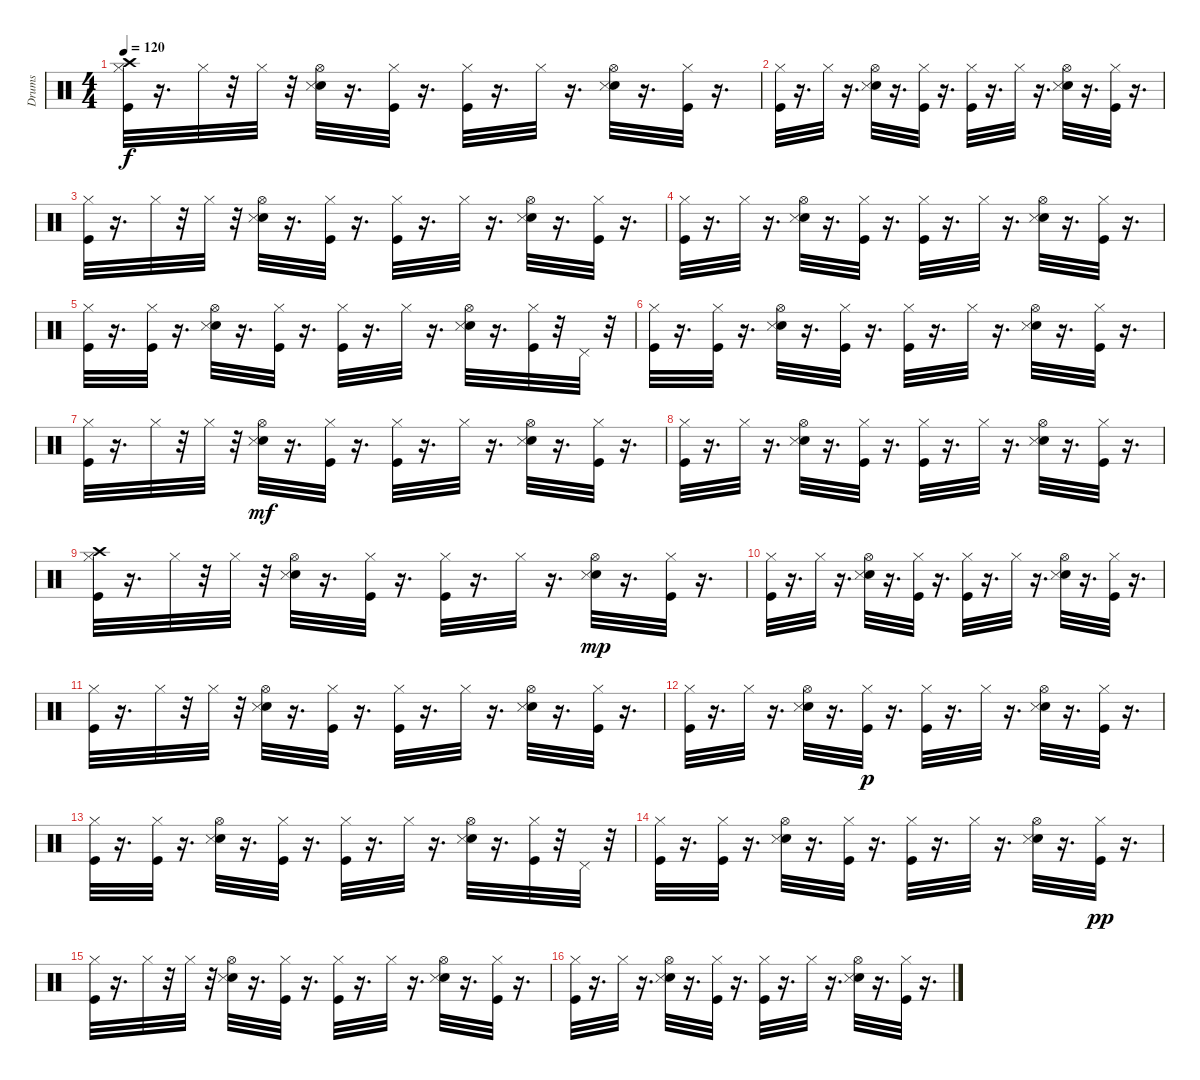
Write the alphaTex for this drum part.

\track ("Drums" "Drums") {instrument percussion}
\staff {score}
\articulation defaults
\ts (4 4)
\tempo 120
\clef neutral
\ks c
("Crash high (hit)" "Hi-Hat (closed)" "Kick (hit)").32{dy f} r.16{d} "Hi-Hat (closed)".32 r.32 "Hi-Hat (closed)".32 r.32 ("Snare (hit) 2" "Hi-Hat (open)" "Snare (side stick) 3").32 r.16{d} ("Hi-Hat (closed)" "Kick (hit)").32 r.16{d} ("Hi-Hat (closed)" "Kick (hit)").32 r.16{d} "Hi-Hat (closed)".32 r.16{d} ("Snare (hit) 2" "Hi-Hat (open)" "Snare (side stick) 3").32 r.16{d} ("Kick (hit)" "Hi-Hat (closed)").32 r.16{d} |
("Hi-Hat (closed)" "Kick (hit)").32 r.16{d} "Hi-Hat (closed)".32 r.16{d} ("Snare (hit) 2" "Hi-Hat (open)" "Snare (side stick) 3").32 r.16{d} ("Hi-Hat (closed)" "Kick (hit)").32 r.16{d} ("Hi-Hat (closed)" "Kick (hit)").32 r.16{d} "Hi-Hat (closed)".32 r.16{d} ("Snare (hit) 2" "Hi-Hat (open)" "Snare (side stick) 3").32 r.16{d} ("Kick (hit)" "Hi-Hat (closed)").32 r.16{d} |
("Hi-Hat (closed)" "Kick (hit)").32 r.16{d} "Hi-Hat (closed)".32 r.32 "Hi-Hat (closed)".32 r.32 ("Snare (hit) 2" "Hi-Hat (open)" "Snare (side stick) 3").32 r.16{d} ("Hi-Hat (closed)" "Kick (hit)").32 r.16{d} ("Hi-Hat (closed)" "Kick (hit)").32 r.16{d} "Hi-Hat (closed)".32 r.16{d} ("Snare (hit) 2" "Hi-Hat (open)" "Snare (side stick) 3").32 r.16{d} ("Kick (hit)" "Hi-Hat (closed)").32 r.16{d} |
("Hi-Hat (closed)" "Kick (hit)").32 r.16{d} "Hi-Hat (closed)".32 r.16{d} ("Snare (hit) 2" "Hi-Hat (open)" "Snare (side stick) 3").32 r.16{d} ("Hi-Hat (closed)" "Kick (hit)").32 r.16{d} ("Hi-Hat (closed)" "Kick (hit)").32 r.16{d} "Hi-Hat (closed)".32 r.16{d} ("Snare (hit) 2" "Hi-Hat (open)" "Snare (side stick) 3").32 r.16{d} ("Kick (hit)" "Hi-Hat (closed)").32 r.16{d} |
("Hi-Hat (closed)" "Kick (hit)").32 r.16{d} ("Kick (hit)" "Hi-Hat (closed)").32 r.16{d} ("Snare (hit) 2" "Hi-Hat (open)" "Snare (side stick) 3").32 r.16{d} ("Hi-Hat (closed)" "Kick (hit)").32 r.16{d} ("Hi-Hat (closed)" "Kick (hit)").32 r.16{d} "Hi-Hat (closed)".32 r.16{d} ("Snare (hit) 2" "Hi-Hat (open)" "Snare (side stick) 3").32 r.16{d} ("Kick (hit)" "Hi-Hat (closed)").32 r.32 "Pedal Hi-Hat (hit)".32 r.32 |
("Hi-Hat (closed)" "Kick (hit)").32 r.16{d} ("Kick (hit)" "Hi-Hat (closed)").32 r.16{d} ("Snare (hit) 2" "Hi-Hat (open)" "Snare (side stick) 3").32 r.16{d} ("Hi-Hat (closed)" "Kick (hit)").32 r.16{d} ("Hi-Hat (closed)" "Kick (hit)").32 r.16{d} "Hi-Hat (closed)".32 r.16{d} ("Snare (hit) 2" "Hi-Hat (open)" "Snare (side stick) 3").32 r.16{d} ("Kick (hit)" "Hi-Hat (closed)").32 r.16{d} |
("Hi-Hat (closed)" "Kick (hit)").32 r.16{d} "Hi-Hat (closed)".32 r.32 "Hi-Hat (closed)".32 r.32 ("Snare (hit) 2" "Hi-Hat (open)" "Snare (side stick) 3").32{dy mf} r.16{d} ("Hi-Hat (closed)" "Kick (hit)").32 r.16{d} ("Hi-Hat (closed)" "Kick (hit)").32 r.16{d} "Hi-Hat (closed)".32 r.16{d} ("Snare (hit) 2" "Hi-Hat (open)" "Snare (side stick) 3").32 r.16{d} ("Kick (hit)" "Hi-Hat (closed)").32 r.16{d} |
("Hi-Hat (closed)" "Kick (hit)").32 r.16{d} "Hi-Hat (closed)".32 r.16{d} ("Snare (hit) 2" "Hi-Hat (open)" "Snare (side stick) 3").32 r.16{d} ("Hi-Hat (closed)" "Kick (hit)").32 r.16{d} ("Hi-Hat (closed)" "Kick (hit)").32 r.16{d} "Hi-Hat (closed)".32 r.16{d} ("Snare (hit) 2" "Hi-Hat (open)" "Snare (side stick) 3").32 r.16{d} ("Kick (hit)" "Hi-Hat (closed)").32 r.16{d} |
("Crash high (hit)" "Hi-Hat (closed)" "Kick (hit)").32 r.16{d} "Hi-Hat (closed)".32 r.32 "Hi-Hat (closed)".32 r.32 ("Snare (hit) 2" "Hi-Hat (open)" "Snare (side stick) 3").32 r.16{d} ("Hi-Hat (closed)" "Kick (hit)").32 r.16{d} ("Hi-Hat (closed)" "Kick (hit)").32 r.16{d} "Hi-Hat (closed)".32 r.16{d} ("Snare (hit) 2" "Hi-Hat (open)" "Snare (side stick) 3").32{dy mp} r.16{d} ("Kick (hit)" "Hi-Hat (closed)").32 r.16{d} |
("Hi-Hat (closed)" "Kick (hit)").32 r.16{d} "Hi-Hat (closed)".32 r.16{d} ("Snare (hit) 2" "Hi-Hat (open)" "Snare (side stick) 3").32 r.16{d} ("Hi-Hat (closed)" "Kick (hit)").32 r.16{d} ("Hi-Hat (closed)" "Kick (hit)").32 r.16{d} "Hi-Hat (closed)".32 r.16{d} ("Snare (hit) 2" "Hi-Hat (open)" "Snare (side stick) 3").32 r.16{d} ("Kick (hit)" "Hi-Hat (closed)").32 r.16{d} |
("Hi-Hat (closed)" "Kick (hit)").32 r.16{d} "Hi-Hat (closed)".32 r.32 "Hi-Hat (closed)".32 r.32 ("Snare (hit) 2" "Hi-Hat (open)" "Snare (side stick) 3").32 r.16{d} ("Hi-Hat (closed)" "Kick (hit)").32 r.16{d} ("Hi-Hat (closed)" "Kick (hit)").32 r.16{d} "Hi-Hat (closed)".32 r.16{d} ("Snare (hit) 2" "Hi-Hat (open)" "Snare (side stick) 3").32 r.16{d} ("Kick (hit)" "Hi-Hat (closed)").32 r.16{d} |
("Hi-Hat (closed)" "Kick (hit)").32 r.16{d} "Hi-Hat (closed)".32 r.16{d} ("Snare (hit) 2" "Hi-Hat (open)" "Snare (side stick) 3").32 r.16{d} ("Hi-Hat (closed)" "Kick (hit)").32{dy p} r.16{d} ("Hi-Hat (closed)" "Kick (hit)").32 r.16{d} "Hi-Hat (closed)".32 r.16{d} ("Snare (hit) 2" "Hi-Hat (open)" "Snare (side stick) 3").32 r.16{d} ("Kick (hit)" "Hi-Hat (closed)").32 r.16{d} |
("Hi-Hat (closed)" "Kick (hit)").32 r.16{d} ("Kick (hit)" "Hi-Hat (closed)").32 r.16{d} ("Snare (hit) 2" "Hi-Hat (open)" "Snare (side stick) 3").32 r.16{d} ("Hi-Hat (closed)" "Kick (hit)").32 r.16{d} ("Hi-Hat (closed)" "Kick (hit)").32 r.16{d} "Hi-Hat (closed)".32 r.16{d} ("Snare (hit) 2" "Hi-Hat (open)" "Snare (side stick) 3").32 r.16{d} ("Kick (hit)" "Hi-Hat (closed)").32 r.32 "Pedal Hi-Hat (hit)".32 r.32 |
("Hi-Hat (closed)" "Kick (hit)").32 r.16{d} ("Kick (hit)" "Hi-Hat (closed)").32 r.16{d} ("Snare (hit) 2" "Hi-Hat (open)" "Snare (side stick) 3").32 r.16{d} ("Hi-Hat (closed)" "Kick (hit)").32 r.16{d} ("Hi-Hat (closed)" "Kick (hit)").32 r.16{d} "Hi-Hat (closed)".32 r.16{d} ("Snare (hit) 2" "Hi-Hat (open)" "Snare (side stick) 3").32 r.16{d} ("Kick (hit)" "Hi-Hat (closed)").32{dy pp} r.16{d} |
("Hi-Hat (closed)" "Kick (hit)").32 r.16{d} "Hi-Hat (closed)".32 r.32 "Hi-Hat (closed)".32 r.32 ("Snare (hit) 2" "Hi-Hat (open)" "Snare (side stick) 3").32 r.16{d} ("Hi-Hat (closed)" "Kick (hit)").32 r.16{d} ("Hi-Hat (closed)" "Kick (hit)").32 r.16{d} "Hi-Hat (closed)".32 r.16{d} ("Snare (hit) 2" "Hi-Hat (open)" "Snare (side stick) 3").32 r.16{d} ("Kick (hit)" "Hi-Hat (closed)").32 r.16{d} |
("Hi-Hat (closed)" "Kick (hit)").32 r.16{d} "Hi-Hat (closed)".32 r.16{d} ("Snare (hit) 2" "Hi-Hat (open)" "Snare (side stick) 3").32 r.16{d} ("Hi-Hat (closed)" "Kick (hit)").32 r.16{d} ("Hi-Hat (closed)" "Kick (hit)").32 r.16{d} "Hi-Hat (closed)".32 r.16{d} ("Snare (hit) 2" "Hi-Hat (open)" "Snare (side stick) 3").32 r.16{d} ("Kick (hit)" "Hi-Hat (closed)").32 r.16{d}
